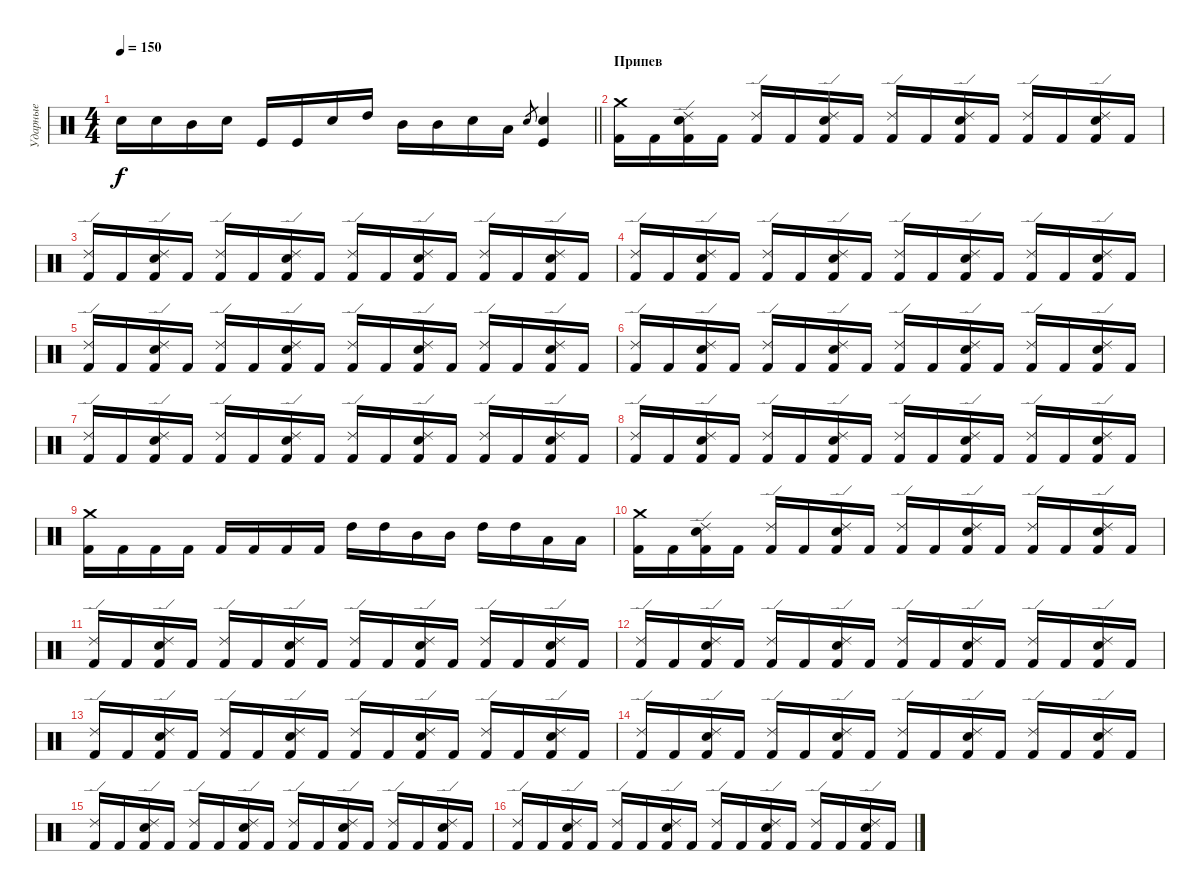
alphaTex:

\track ("Ударные" "Ударные") {instrument percussion}
\staff {score}
\articulation defaults
\ts (4 4)
\tempo 150
\clef neutral
\barLineRight lightlight
\ks c "Electric Snare (hit)".16{dy f} "Electric Snare (hit)".16 "Mid Tom (hit)".16 "Electric Snare (hit)".16 "Kick (hit)".16 "Kick (hit)".16 "Electric Snare (hit)".16 "High Tom (hit)".16 "Mid Tom (hit)".16 "Mid Tom (hit)".16 "Electric Snare (hit)".16 "Low Tom (hit)".16 "Electric Snare (hit)".8{gr}
("Electric Snare (hit)" "Kick (hit)").4 |
\section ("" "Припев")
("Kick (hit) 2" "Crash medium (hit)").16 "Kick (hit) 2".16 ("Kick (hit) 2" "Electric Snare (hit)" "Ride (edge) 2").16 "Kick (hit) 2".16 ("Kick (hit) 2" "Ride (edge) 2").16 "Kick (hit) 2".16 ("Kick (hit) 2" "Electric Snare (hit)" "Ride (edge) 2").16 "Kick (hit) 2".16 ("Kick (hit) 2" "Ride (edge) 2").16 "Kick (hit) 2".16 ("Kick (hit) 2" "Electric Snare (hit)" "Ride (edge) 2").16 "Kick (hit) 2".16 ("Kick (hit) 2" "Ride (edge) 2").16 "Kick (hit) 2".16 ("Kick (hit) 2" "Electric Snare (hit)" "Ride (edge) 2").16 "Kick (hit) 2".16 |
("Kick (hit) 2" "Ride (edge) 2").16 "Kick (hit) 2".16 ("Kick (hit) 2" "Electric Snare (hit)" "Ride (edge) 2").16 "Kick (hit) 2".16 ("Kick (hit) 2" "Ride (edge) 2").16 "Kick (hit) 2".16 ("Kick (hit) 2" "Electric Snare (hit)" "Ride (edge) 2").16 "Kick (hit) 2".16 ("Kick (hit) 2" "Ride (edge) 2").16 "Kick (hit) 2".16 ("Kick (hit) 2" "Electric Snare (hit)" "Ride (edge) 2").16 "Kick (hit) 2".16 ("Kick (hit) 2" "Ride (edge) 2").16 "Kick (hit) 2".16 ("Kick (hit) 2" "Electric Snare (hit)" "Ride (edge) 2").16 "Kick (hit) 2".16 |
("Kick (hit) 2" "Ride (edge) 2").16 "Kick (hit) 2".16 ("Kick (hit) 2" "Electric Snare (hit)" "Ride (edge) 2").16 "Kick (hit) 2".16 ("Kick (hit) 2" "Ride (edge) 2").16 "Kick (hit) 2".16 ("Kick (hit) 2" "Electric Snare (hit)" "Ride (edge) 2").16 "Kick (hit) 2".16 ("Kick (hit) 2" "Ride (edge) 2").16 "Kick (hit) 2".16 ("Kick (hit) 2" "Electric Snare (hit)" "Ride (edge) 2").16 "Kick (hit) 2".16 ("Kick (hit) 2" "Ride (edge) 2").16 "Kick (hit) 2".16 ("Kick (hit) 2" "Electric Snare (hit)" "Ride (edge) 2").16 "Kick (hit) 2".16 |
("Kick (hit) 2" "Ride (edge) 2").16 "Kick (hit) 2".16 ("Kick (hit) 2" "Electric Snare (hit)" "Ride (edge) 2").16 "Kick (hit) 2".16 ("Kick (hit) 2" "Ride (edge) 2").16 "Kick (hit) 2".16 ("Kick (hit) 2" "Electric Snare (hit)" "Ride (edge) 2").16 "Kick (hit) 2".16 ("Kick (hit) 2" "Ride (edge) 2").16 "Kick (hit) 2".16 ("Kick (hit) 2" "Electric Snare (hit)" "Ride (edge) 2").16 "Kick (hit) 2".16 ("Kick (hit) 2" "Ride (edge) 2").16 "Kick (hit) 2".16 ("Kick (hit) 2" "Electric Snare (hit)" "Ride (edge) 2").16 "Kick (hit) 2".16 |
("Kick (hit) 2" "Ride (edge) 2").16 "Kick (hit) 2".16 ("Kick (hit) 2" "Electric Snare (hit)" "Ride (edge) 2").16 "Kick (hit) 2".16 ("Kick (hit) 2" "Ride (edge) 2").16 "Kick (hit) 2".16 ("Kick (hit) 2" "Electric Snare (hit)" "Ride (edge) 2").16 "Kick (hit) 2".16 ("Kick (hit) 2" "Ride (edge) 2").16 "Kick (hit) 2".16 ("Kick (hit) 2" "Electric Snare (hit)" "Ride (edge) 2").16 "Kick (hit) 2".16 ("Kick (hit) 2" "Ride (edge) 2").16 "Kick (hit) 2".16 ("Kick (hit) 2" "Electric Snare (hit)" "Ride (edge) 2").16 "Kick (hit) 2".16 |
("Kick (hit) 2" "Ride (edge) 2").16 "Kick (hit) 2".16 ("Kick (hit) 2" "Electric Snare (hit)" "Ride (edge) 2").16 "Kick (hit) 2".16 ("Kick (hit) 2" "Ride (edge) 2").16 "Kick (hit) 2".16 ("Kick (hit) 2" "Electric Snare (hit)" "Ride (edge) 2").16 "Kick (hit) 2".16 ("Kick (hit) 2" "Ride (edge) 2").16 "Kick (hit) 2".16 ("Kick (hit) 2" "Electric Snare (hit)" "Ride (edge) 2").16 "Kick (hit) 2".16 ("Kick (hit) 2" "Ride (edge) 2").16 "Kick (hit) 2".16 ("Kick (hit) 2" "Electric Snare (hit)" "Ride (edge) 2").16 "Kick (hit) 2".16 |
("Kick (hit) 2" "Ride (edge) 2").16 "Kick (hit) 2".16 ("Kick (hit) 2" "Electric Snare (hit)" "Ride (edge) 2").16 "Kick (hit) 2".16 ("Kick (hit) 2" "Ride (edge) 2").16 "Kick (hit) 2".16 ("Kick (hit) 2" "Electric Snare (hit)" "Ride (edge) 2").16 "Kick (hit) 2".16 ("Kick (hit) 2" "Ride (edge) 2").16 "Kick (hit) 2".16 ("Kick (hit) 2" "Electric Snare (hit)" "Ride (edge) 2").16 "Kick (hit) 2".16 ("Kick (hit) 2" "Ride (edge) 2").16 "Kick (hit) 2".16 ("Kick (hit) 2" "Electric Snare (hit)" "Ride (edge) 2").16 "Kick (hit) 2".16 |
("Kick (hit) 2" "Crash medium (hit)").16 "Kick (hit) 2".16 "Kick (hit) 2".16 "Kick (hit) 2".16 "Kick (hit) 2".16 "Kick (hit) 2".16 "Kick (hit) 2".16 "Kick (hit) 2".16 "High Tom (hit)".16 "High Tom (hit)".16 "Mid Tom (hit)".16 "Mid Tom (hit)".16 "High Tom (hit)".16 "High Tom (hit)".16 "Low Tom (hit)".16 "Low Tom (hit)".16 |
("Kick (hit) 2" "Crash medium (hit)").16 "Kick (hit) 2".16 ("Kick (hit) 2" "Electric Snare (hit)" "Ride (edge) 2").16 "Kick (hit) 2".16 ("Kick (hit) 2" "Ride (edge) 2").16 "Kick (hit) 2".16 ("Kick (hit) 2" "Electric Snare (hit)" "Ride (edge) 2").16 "Kick (hit) 2".16 ("Kick (hit) 2" "Ride (edge) 2").16 "Kick (hit) 2".16 ("Kick (hit) 2" "Electric Snare (hit)" "Ride (edge) 2").16 "Kick (hit) 2".16 ("Kick (hit) 2" "Ride (edge) 2").16 "Kick (hit) 2".16 ("Kick (hit) 2" "Electric Snare (hit)" "Ride (edge) 2").16 "Kick (hit) 2".16 |
("Kick (hit) 2" "Ride (edge) 2").16 "Kick (hit) 2".16 ("Kick (hit) 2" "Electric Snare (hit)" "Ride (edge) 2").16 "Kick (hit) 2".16 ("Kick (hit) 2" "Ride (edge) 2").16 "Kick (hit) 2".16 ("Kick (hit) 2" "Electric Snare (hit)" "Ride (edge) 2").16 "Kick (hit) 2".16 ("Kick (hit) 2" "Ride (edge) 2").16 "Kick (hit) 2".16 ("Kick (hit) 2" "Electric Snare (hit)" "Ride (edge) 2").16 "Kick (hit) 2".16 ("Kick (hit) 2" "Ride (edge) 2").16 "Kick (hit) 2".16 ("Kick (hit) 2" "Electric Snare (hit)" "Ride (edge) 2").16 "Kick (hit) 2".16 |
("Kick (hit) 2" "Ride (edge) 2").16 "Kick (hit) 2".16 ("Kick (hit) 2" "Electric Snare (hit)" "Ride (edge) 2").16 "Kick (hit) 2".16 ("Kick (hit) 2" "Ride (edge) 2").16 "Kick (hit) 2".16 ("Kick (hit) 2" "Electric Snare (hit)" "Ride (edge) 2").16 "Kick (hit) 2".16 ("Kick (hit) 2" "Ride (edge) 2").16 "Kick (hit) 2".16 ("Kick (hit) 2" "Electric Snare (hit)" "Ride (edge) 2").16 "Kick (hit) 2".16 ("Kick (hit) 2" "Ride (edge) 2").16 "Kick (hit) 2".16 ("Kick (hit) 2" "Electric Snare (hit)" "Ride (edge) 2").16 "Kick (hit) 2".16 |
("Kick (hit) 2" "Ride (edge) 2").16 "Kick (hit) 2".16 ("Kick (hit) 2" "Electric Snare (hit)" "Ride (edge) 2").16 "Kick (hit) 2".16 ("Kick (hit) 2" "Ride (edge) 2").16 "Kick (hit) 2".16 ("Kick (hit) 2" "Electric Snare (hit)" "Ride (edge) 2").16 "Kick (hit) 2".16 ("Kick (hit) 2" "Ride (edge) 2").16 "Kick (hit) 2".16 ("Kick (hit) 2" "Electric Snare (hit)" "Ride (edge) 2").16 "Kick (hit) 2".16 ("Kick (hit) 2" "Ride (edge) 2").16 "Kick (hit) 2".16 ("Kick (hit) 2" "Electric Snare (hit)" "Ride (edge) 2").16 "Kick (hit) 2".16 |
("Kick (hit) 2" "Ride (edge) 2").16 "Kick (hit) 2".16 ("Kick (hit) 2" "Electric Snare (hit)" "Ride (edge) 2").16 "Kick (hit) 2".16 ("Kick (hit) 2" "Ride (edge) 2").16 "Kick (hit) 2".16 ("Kick (hit) 2" "Electric Snare (hit)" "Ride (edge) 2").16 "Kick (hit) 2".16 ("Kick (hit) 2" "Ride (edge) 2").16 "Kick (hit) 2".16 ("Kick (hit) 2" "Electric Snare (hit)" "Ride (edge) 2").16 "Kick (hit) 2".16 ("Kick (hit) 2" "Ride (edge) 2").16 "Kick (hit) 2".16 ("Kick (hit) 2" "Electric Snare (hit)" "Ride (edge) 2").16 "Kick (hit) 2".16 |
("Kick (hit) 2" "Ride (edge) 2").16 "Kick (hit) 2".16 ("Kick (hit) 2" "Electric Snare (hit)" "Ride (edge) 2").16 "Kick (hit) 2".16 ("Kick (hit) 2" "Ride (edge) 2").16 "Kick (hit) 2".16 ("Kick (hit) 2" "Electric Snare (hit)" "Ride (edge) 2").16 "Kick (hit) 2".16 ("Kick (hit) 2" "Ride (edge) 2").16 "Kick (hit) 2".16 ("Kick (hit) 2" "Electric Snare (hit)" "Ride (edge) 2").16 "Kick (hit) 2".16 ("Kick (hit) 2" "Ride (edge) 2").16 "Kick (hit) 2".16 ("Kick (hit) 2" "Electric Snare (hit)" "Ride (edge) 2").16 "Kick (hit) 2".16 |
("Kick (hit) 2" "Ride (edge) 2").16 "Kick (hit) 2".16 ("Kick (hit) 2" "Electric Snare (hit)" "Ride (edge) 2").16 "Kick (hit) 2".16 ("Kick (hit) 2" "Ride (edge) 2").16 "Kick (hit) 2".16 ("Kick (hit) 2" "Electric Snare (hit)" "Ride (edge) 2").16 "Kick (hit) 2".16 ("Kick (hit) 2" "Ride (edge) 2").16 "Kick (hit) 2".16 ("Kick (hit) 2" "Electric Snare (hit)" "Ride (edge) 2").16 "Kick (hit) 2".16 ("Kick (hit) 2" "Ride (edge) 2").16 "Kick (hit) 2".16 ("Kick (hit) 2" "Electric Snare (hit)" "Ride (edge) 2").16 "Kick (hit) 2".16
